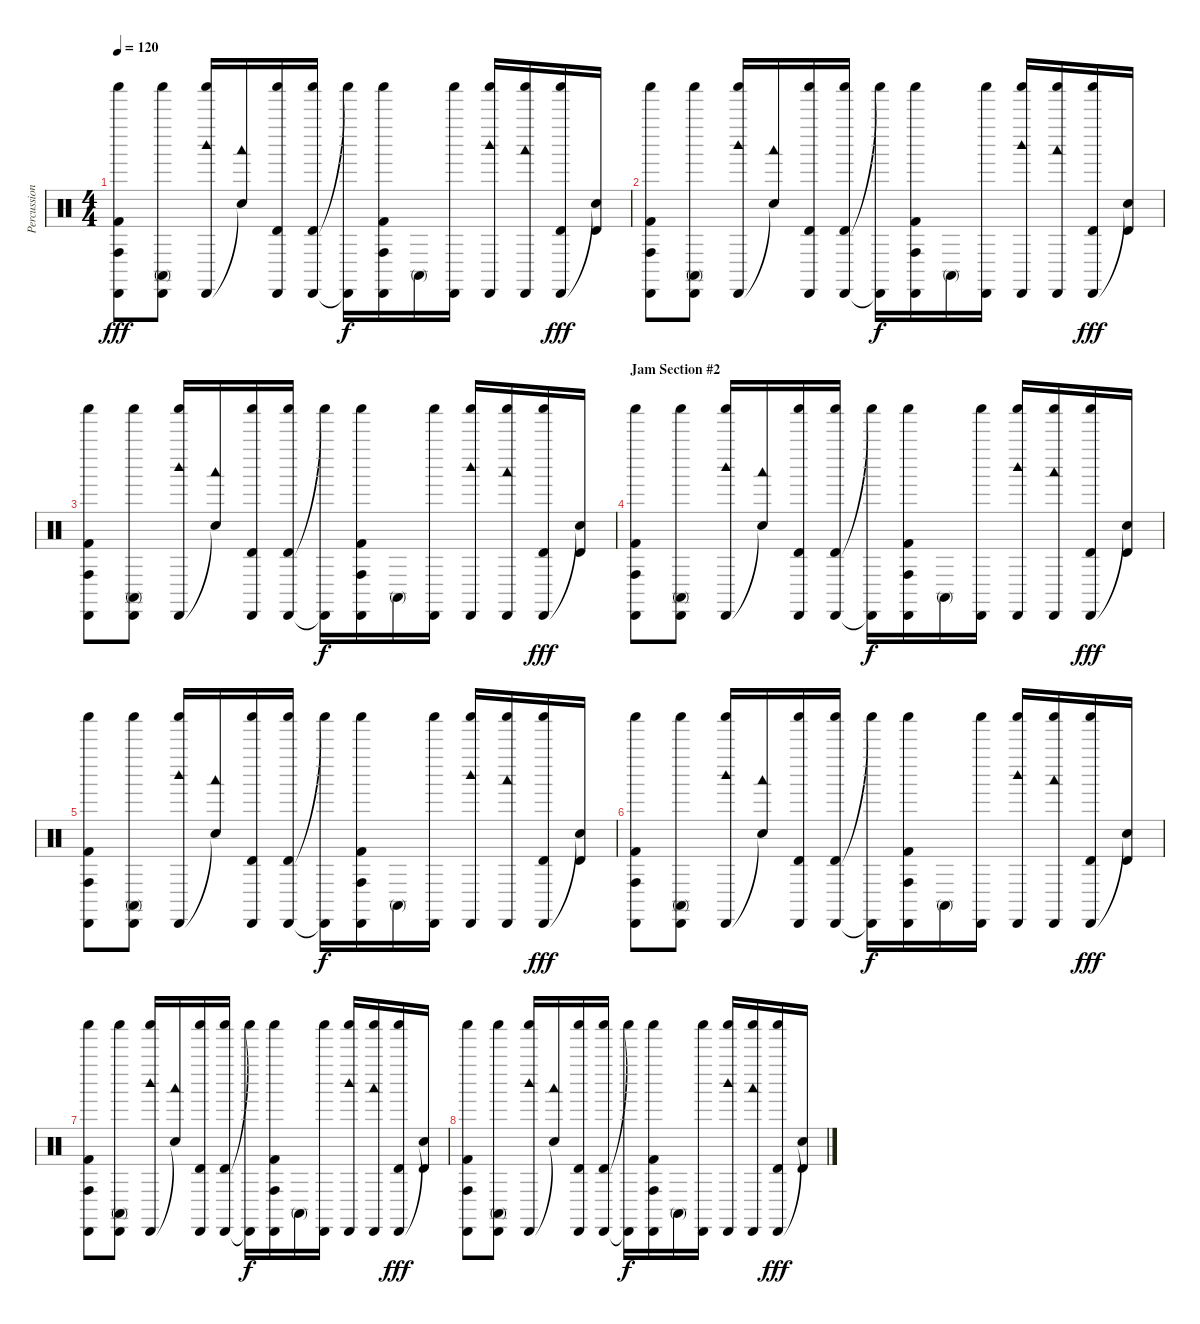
\track ("Percussion" "Percussion") {instrument percussion}
\staff {score}
\articulation defaults
\ts (4 4)
\tempo 120
\clef neutral
\ks c
("Cabasa (hit)" "Conga high (hit)" "Kick (hit) 2" "Shaker (hit)").8{dy fff} ("Cabasa (hit)" "Conga high (mute)" "Shaker (hit)").8 ("Cabasa (hit)" "Woodblock high (hit)" "Shaker (hit)").16 ("Snare (hit)"{t} "Woodblock low (hit)").16 ("Cabasa (hit)" "Timbale high (hit)" "Shaker (hit)").16 ("Cabasa (hit)" "Timbale high (hit)" "Shaker (hit)").16 ("Cabasa (hit)"{t} "Shaker (hit)"{t}).16{dy f} ("Cabasa (hit)" "Conga high (hit)" "Kick (hit) 2" "Shaker (hit)").16 "Conga high (mute)".16 ("Cabasa (hit)" "Shaker (hit)").16 ("Cabasa (hit)" "Woodblock high (hit)" "Shaker (hit)").16 ("Cabasa (hit)" "Woodblock low (hit)" "Shaker (hit)").16 ("Cabasa (hit)" "Timbale high (hit)" "Shaker (hit)").16{dy fff} ("Snare (hit)"{t} "Timbale high (hit)").16 |
("Cabasa (hit)" "Conga high (hit)" "Kick (hit) 2" "Shaker (hit)").8 ("Cabasa (hit)" "Conga high (mute)" "Shaker (hit)").8 ("Cabasa (hit)" "Woodblock high (hit)" "Shaker (hit)").16 ("Snare (hit)"{t} "Woodblock low (hit)").16 ("Cabasa (hit)" "Timbale high (hit)" "Shaker (hit)").16 ("Cabasa (hit)" "Timbale high (hit)" "Shaker (hit)").16 ("Cabasa (hit)"{t} "Shaker (hit)"{t}).16{dy f} ("Cabasa (hit)" "Conga high (hit)" "Kick (hit) 2" "Shaker (hit)").16 "Conga high (mute)".16 ("Cabasa (hit)" "Shaker (hit)").16 ("Cabasa (hit)" "Woodblock high (hit)" "Shaker (hit)").16 ("Cabasa (hit)" "Woodblock low (hit)" "Shaker (hit)").16 ("Cabasa (hit)" "Timbale high (hit)" "Shaker (hit)").16{dy fff} ("Snare (hit)"{t} "Timbale high (hit)").16 |
("Cabasa (hit)" "Conga high (hit)" "Kick (hit) 2" "Shaker (hit)").8 ("Cabasa (hit)" "Conga high (mute)" "Shaker (hit)").8 ("Cabasa (hit)" "Woodblock high (hit)" "Shaker (hit)").16 ("Snare (hit)"{t} "Woodblock low (hit)").16 ("Cabasa (hit)" "Timbale high (hit)" "Shaker (hit)").16 ("Cabasa (hit)" "Timbale high (hit)" "Shaker (hit)").16 ("Cabasa (hit)"{t} "Shaker (hit)"{t}).16{dy f} ("Cabasa (hit)" "Conga high (hit)" "Kick (hit) 2" "Shaker (hit)").16 "Conga high (mute)".16 ("Cabasa (hit)" "Shaker (hit)").16 ("Cabasa (hit)" "Woodblock high (hit)" "Shaker (hit)").16 ("Cabasa (hit)" "Woodblock low (hit)" "Shaker (hit)").16 ("Cabasa (hit)" "Timbale high (hit)" "Shaker (hit)").16{dy fff} ("Snare (hit)"{t} "Timbale high (hit)").16 |
\section ("" "Jam Section #2")
("Cabasa (hit)" "Conga high (hit)" "Kick (hit) 2" "Shaker (hit)").8 ("Cabasa (hit)" "Conga high (mute)" "Shaker (hit)").8 ("Cabasa (hit)" "Woodblock high (hit)" "Shaker (hit)").16 ("Snare (hit)"{t} "Woodblock low (hit)").16 ("Cabasa (hit)" "Timbale high (hit)" "Shaker (hit)").16 ("Cabasa (hit)" "Timbale high (hit)" "Shaker (hit)").16 ("Cabasa (hit)"{t} "Shaker (hit)"{t}).16{dy f} ("Cabasa (hit)" "Conga high (hit)" "Kick (hit) 2" "Shaker (hit)").16 "Conga high (mute)".16 ("Cabasa (hit)" "Shaker (hit)").16 ("Cabasa (hit)" "Woodblock high (hit)" "Shaker (hit)").16 ("Cabasa (hit)" "Woodblock low (hit)" "Shaker (hit)").16 ("Cabasa (hit)" "Timbale high (hit)" "Shaker (hit)").16{dy fff} ("Snare (hit)"{t} "Timbale high (hit)").16 |
("Cabasa (hit)" "Conga high (hit)" "Kick (hit) 2" "Shaker (hit)").8 ("Cabasa (hit)" "Conga high (mute)" "Shaker (hit)").8 ("Cabasa (hit)" "Woodblock high (hit)" "Shaker (hit)").16 ("Snare (hit)"{t} "Woodblock low (hit)").16 ("Cabasa (hit)" "Timbale high (hit)" "Shaker (hit)").16 ("Cabasa (hit)" "Timbale high (hit)" "Shaker (hit)").16 ("Cabasa (hit)"{t} "Shaker (hit)"{t}).16{dy f} ("Cabasa (hit)" "Conga high (hit)" "Kick (hit) 2" "Shaker (hit)").16 "Conga high (mute)".16 ("Cabasa (hit)" "Shaker (hit)").16 ("Cabasa (hit)" "Woodblock high (hit)" "Shaker (hit)").16 ("Cabasa (hit)" "Woodblock low (hit)" "Shaker (hit)").16 ("Cabasa (hit)" "Timbale high (hit)" "Shaker (hit)").16{dy fff} ("Snare (hit)"{t} "Timbale high (hit)").16 |
("Cabasa (hit)" "Conga high (hit)" "Kick (hit) 2" "Shaker (hit)").8 ("Cabasa (hit)" "Conga high (mute)" "Shaker (hit)").8 ("Cabasa (hit)" "Woodblock high (hit)" "Shaker (hit)").16 ("Snare (hit)"{t} "Woodblock low (hit)").16 ("Cabasa (hit)" "Timbale high (hit)" "Shaker (hit)").16 ("Cabasa (hit)" "Timbale high (hit)" "Shaker (hit)").16 ("Cabasa (hit)"{t} "Shaker (hit)"{t}).16{dy f} ("Cabasa (hit)" "Conga high (hit)" "Kick (hit) 2" "Shaker (hit)").16 "Conga high (mute)".16 ("Cabasa (hit)" "Shaker (hit)").16 ("Cabasa (hit)" "Woodblock high (hit)" "Shaker (hit)").16 ("Cabasa (hit)" "Woodblock low (hit)" "Shaker (hit)").16 ("Cabasa (hit)" "Timbale high (hit)" "Shaker (hit)").16{dy fff} ("Snare (hit)"{t} "Timbale high (hit)").16 |
("Cabasa (hit)" "Conga high (hit)" "Kick (hit) 2" "Shaker (hit)").8 ("Cabasa (hit)" "Conga high (mute)" "Shaker (hit)").8 ("Cabasa (hit)" "Woodblock high (hit)" "Shaker (hit)").16 ("Snare (hit)"{t} "Woodblock low (hit)").16 ("Cabasa (hit)" "Timbale high (hit)" "Shaker (hit)").16 ("Cabasa (hit)" "Timbale high (hit)" "Shaker (hit)").16 ("Cabasa (hit)"{t} "Shaker (hit)"{t}).16{dy f} ("Cabasa (hit)" "Conga high (hit)" "Kick (hit) 2" "Shaker (hit)").16 "Conga high (mute)".16 ("Cabasa (hit)" "Shaker (hit)").16 ("Cabasa (hit)" "Woodblock high (hit)" "Shaker (hit)").16 ("Cabasa (hit)" "Woodblock low (hit)" "Shaker (hit)").16 ("Cabasa (hit)" "Timbale high (hit)" "Shaker (hit)").16{dy fff} ("Snare (hit)"{t} "Timbale high (hit)").16 |
("Cabasa (hit)" "Conga high (hit)" "Kick (hit) 2" "Shaker (hit)").8 ("Cabasa (hit)" "Conga high (mute)" "Shaker (hit)").8 ("Cabasa (hit)" "Woodblock high (hit)" "Shaker (hit)").16 ("Snare (hit)"{t} "Woodblock low (hit)").16 ("Cabasa (hit)" "Timbale high (hit)" "Shaker (hit)").16 ("Cabasa (hit)" "Timbale high (hit)" "Shaker (hit)").16 ("Cabasa (hit)"{t} "Shaker (hit)"{t}).16{dy f} ("Cabasa (hit)" "Conga high (hit)" "Kick (hit) 2" "Shaker (hit)").16 "Conga high (mute)".16 ("Cabasa (hit)" "Shaker (hit)").16 ("Cabasa (hit)" "Woodblock high (hit)" "Shaker (hit)").16 ("Cabasa (hit)" "Woodblock low (hit)" "Shaker (hit)").16 ("Cabasa (hit)" "Timbale high (hit)" "Shaker (hit)").16{dy fff} ("Snare (hit)"{t} "Timbale high (hit)").16
